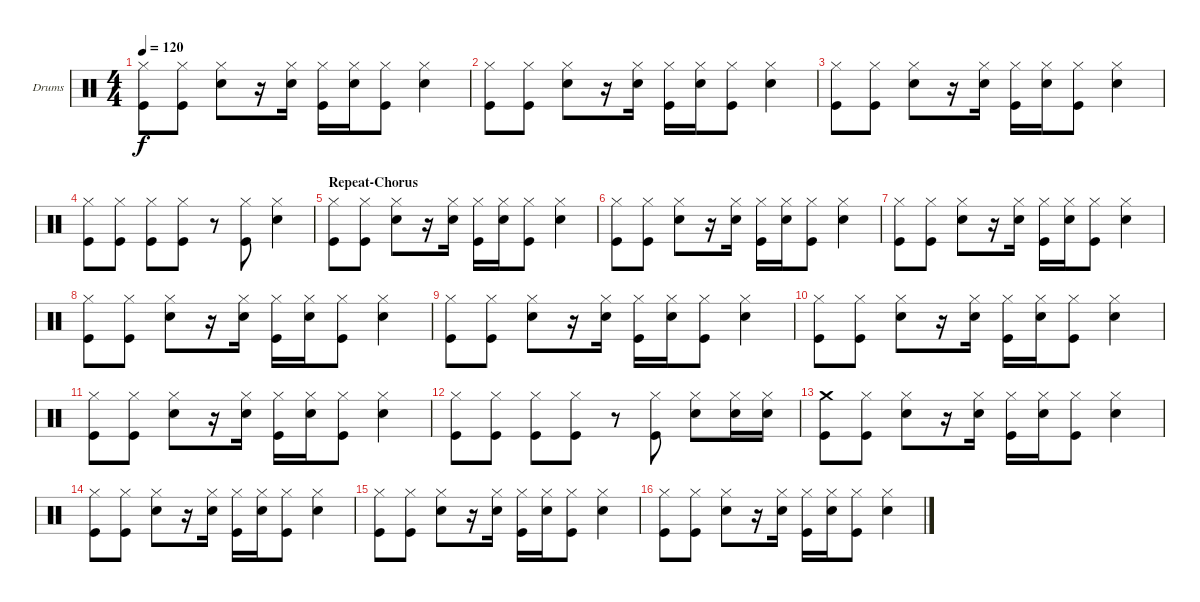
\defaultSystemsLayout 4
\bracketExtendMode groupsimilarinstruments
\firstSystemTrackNameOrientation horizontal
\otherSystemsTrackNameOrientation horizontal
\track ("Drum" "Drums") {instrument percussion}
\staff {score}
\articulation defaults
\ts (4 4)
\tempo 120
\clef neutral
\ks c
("Hi-Hat (closed)" "Kick (hit)").8{dy f} ("Hi-Hat (closed)" "Kick (hit)").8 ("Hi-Hat (closed)" "Snare (hit) 2").8 r.16 ("Hi-Hat (closed)" "Snare (hit) 2").16 ("Hi-Hat (closed)" "Kick (hit)").16 ("Hi-Hat (closed)" "Snare (hit) 2").16 ("Hi-Hat (closed)" "Kick (hit)").8 ("Hi-Hat (closed)" "Snare (hit) 2").4 |
("Hi-Hat (closed)" "Kick (hit)").8 ("Hi-Hat (closed)" "Kick (hit)").8 ("Hi-Hat (closed)" "Snare (hit) 2").8 r.16 ("Hi-Hat (closed)" "Snare (hit) 2").16 ("Hi-Hat (closed)" "Kick (hit)").16 ("Hi-Hat (closed)" "Snare (hit) 2").16 ("Hi-Hat (closed)" "Kick (hit)").8 ("Hi-Hat (closed)" "Snare (hit) 2").4 |
("Hi-Hat (closed)" "Kick (hit)").8 ("Hi-Hat (closed)" "Kick (hit)").8 ("Hi-Hat (closed)" "Snare (hit) 2").8 r.16 ("Hi-Hat (closed)" "Snare (hit) 2").16 ("Hi-Hat (closed)" "Kick (hit)").16 ("Hi-Hat (closed)" "Snare (hit) 2").16 ("Hi-Hat (closed)" "Kick (hit)").8 ("Hi-Hat (closed)" "Snare (hit) 2").4 |
("Hi-Hat (closed)" "Kick (hit)").8 ("Hi-Hat (closed)" "Kick (hit)").8 ("Hi-Hat (closed)" "Kick (hit)").8 ("Hi-Hat (closed)" "Kick (hit)").8 r.8 ("Hi-Hat (closed)" "Kick (hit)").8 ("Hi-Hat (closed)" "Snare (hit) 2").4 |
\section ("" "Repeat-Chorus")
("Hi-Hat (closed)" "Kick (hit)").8 ("Hi-Hat (closed)" "Kick (hit)").8 ("Hi-Hat (closed)" "Snare (hit) 2").8 r.16 ("Hi-Hat (closed)" "Snare (hit) 2").16 ("Hi-Hat (closed)" "Kick (hit)").16 ("Hi-Hat (closed)" "Snare (hit) 2").16 ("Hi-Hat (closed)" "Kick (hit)").8 ("Hi-Hat (closed)" "Snare (hit) 2").4 |
("Hi-Hat (closed)" "Kick (hit)").8 ("Hi-Hat (closed)" "Kick (hit)").8 ("Hi-Hat (closed)" "Snare (hit) 2").8 r.16 ("Hi-Hat (closed)" "Snare (hit) 2").16 ("Hi-Hat (closed)" "Kick (hit)").16 ("Hi-Hat (closed)" "Snare (hit) 2").16 ("Hi-Hat (closed)" "Kick (hit)").8 ("Hi-Hat (closed)" "Snare (hit) 2").4 |
("Hi-Hat (closed)" "Kick (hit)").8 ("Hi-Hat (closed)" "Kick (hit)").8 ("Hi-Hat (closed)" "Snare (hit) 2").8 r.16 ("Hi-Hat (closed)" "Snare (hit) 2").16 ("Hi-Hat (closed)" "Kick (hit)").16 ("Hi-Hat (closed)" "Snare (hit) 2").16 ("Hi-Hat (closed)" "Kick (hit)").8 ("Hi-Hat (closed)" "Snare (hit) 2").4 |
("Hi-Hat (closed)" "Kick (hit)").8 ("Hi-Hat (closed)" "Kick (hit)").8 ("Hi-Hat (closed)" "Snare (hit) 2").8 r.16 ("Hi-Hat (closed)" "Snare (hit) 2").16 ("Hi-Hat (closed)" "Kick (hit)").16 ("Hi-Hat (closed)" "Snare (hit) 2").16 ("Hi-Hat (closed)" "Kick (hit)").8 ("Hi-Hat (closed)" "Snare (hit) 2").4 |
("Hi-Hat (closed)" "Kick (hit)").8 ("Hi-Hat (closed)" "Kick (hit)").8 ("Hi-Hat (closed)" "Snare (hit) 2").8 r.16 ("Hi-Hat (closed)" "Snare (hit) 2").16 ("Hi-Hat (closed)" "Kick (hit)").16 ("Hi-Hat (closed)" "Snare (hit) 2").16 ("Hi-Hat (closed)" "Kick (hit)").8 ("Hi-Hat (closed)" "Snare (hit) 2").4 |
("Hi-Hat (closed)" "Kick (hit)").8 ("Hi-Hat (closed)" "Kick (hit)").8 ("Hi-Hat (closed)" "Snare (hit) 2").8 r.16 ("Hi-Hat (closed)" "Snare (hit) 2").16 ("Hi-Hat (closed)" "Kick (hit)").16 ("Hi-Hat (closed)" "Snare (hit) 2").16 ("Hi-Hat (closed)" "Kick (hit)").8 ("Hi-Hat (closed)" "Snare (hit) 2").4 |
("Hi-Hat (closed)" "Kick (hit)").8 ("Hi-Hat (closed)" "Kick (hit)").8 ("Hi-Hat (closed)" "Snare (hit) 2").8 r.16 ("Hi-Hat (closed)" "Snare (hit) 2").16 ("Hi-Hat (closed)" "Kick (hit)").16 ("Hi-Hat (closed)" "Snare (hit) 2").16 ("Hi-Hat (closed)" "Kick (hit)").8 ("Hi-Hat (closed)" "Snare (hit) 2").4 |
("Hi-Hat (closed)" "Kick (hit)").8 ("Hi-Hat (closed)" "Kick (hit)").8 ("Hi-Hat (closed)" "Kick (hit)").8 ("Hi-Hat (closed)" "Kick (hit)").8 r.8 ("Hi-Hat (closed)" "Kick (hit)").8 ("Hi-Hat (closed)" "Snare (hit) 2").8 ("Hi-Hat (closed)" "Snare (hit) 2").16 ("Hi-Hat (closed)" "Snare (hit) 2").16 |
("Crash medium (hit)" "Kick (hit)").8 ("Hi-Hat (closed)" "Kick (hit)").8 ("Hi-Hat (closed)" "Snare (hit) 2").8 r.16 ("Hi-Hat (closed)" "Snare (hit) 2").16 ("Hi-Hat (closed)" "Kick (hit)").16 ("Hi-Hat (closed)" "Snare (hit) 2").16 ("Hi-Hat (closed)" "Kick (hit)").8 ("Hi-Hat (closed)" "Snare (hit) 2").4 |
("Hi-Hat (closed)" "Kick (hit)").8 ("Hi-Hat (closed)" "Kick (hit)").8 ("Hi-Hat (closed)" "Snare (hit) 2").8 r.16 ("Hi-Hat (closed)" "Snare (hit) 2").16 ("Hi-Hat (closed)" "Kick (hit)").16 ("Hi-Hat (closed)" "Snare (hit) 2").16 ("Hi-Hat (closed)" "Kick (hit)").8 ("Hi-Hat (closed)" "Snare (hit) 2").4 |
("Hi-Hat (closed)" "Kick (hit)").8 ("Hi-Hat (closed)" "Kick (hit)").8 ("Hi-Hat (closed)" "Snare (hit) 2").8 r.16 ("Hi-Hat (closed)" "Snare (hit) 2").16 ("Hi-Hat (closed)" "Kick (hit)").16 ("Hi-Hat (closed)" "Snare (hit) 2").16 ("Hi-Hat (closed)" "Kick (hit)").8 ("Hi-Hat (closed)" "Snare (hit) 2").4 |
("Hi-Hat (closed)" "Kick (hit)").8 ("Hi-Hat (closed)" "Kick (hit)").8 ("Hi-Hat (closed)" "Snare (hit) 2").8 r.16 ("Hi-Hat (closed)" "Snare (hit) 2").16 ("Hi-Hat (closed)" "Kick (hit)").16 ("Hi-Hat (closed)" "Snare (hit) 2").16 ("Hi-Hat (closed)" "Kick (hit)").8 ("Hi-Hat (closed)" "Snare (hit) 2").4
